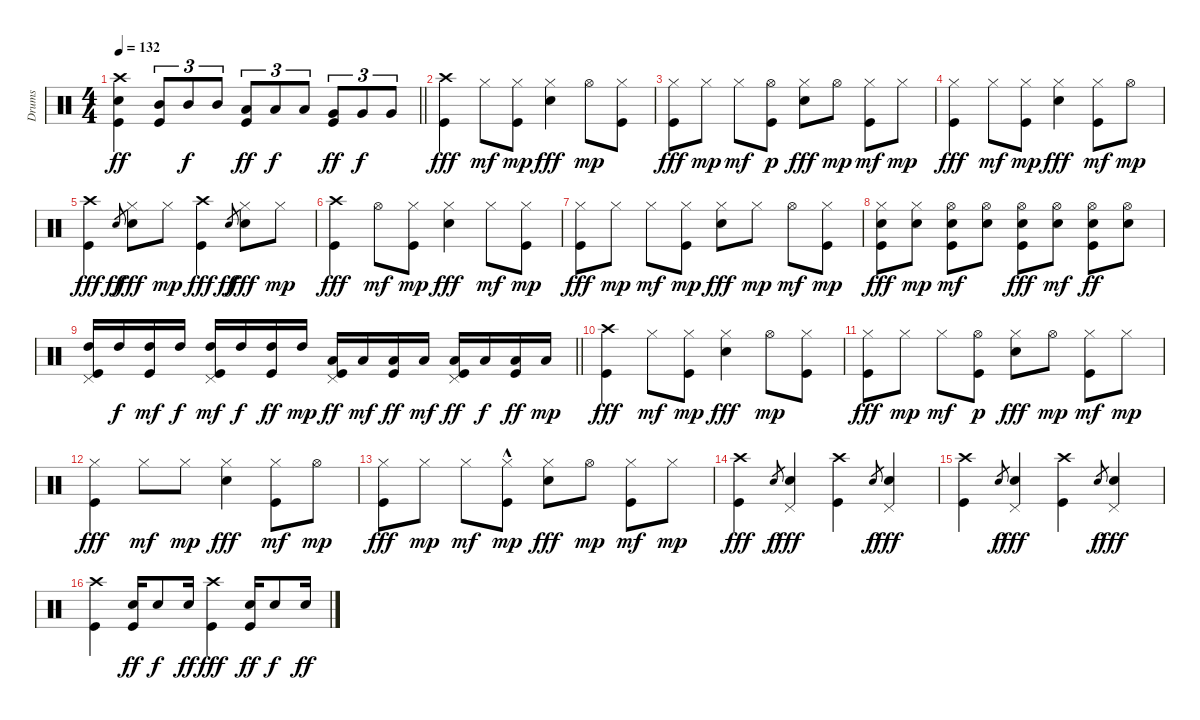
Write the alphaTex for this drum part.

\track ("Drums" "Drums") {instrument percussion}
\staff {score}
\articulation defaults
\ts (4 4)
\tempo 132
\clef neutral
\barLineRight lightlight
\ks c
("Crash high (hit)" "Snare (hit) 2" "Kick (hit)").4{dy ff} ("Mid Tom (hit)" "Kick (hit)").8{tu (3 2)} "Mid Tom (hit)".8{tu (3 2) dy f} "Mid Tom (hit)".8{tu (3 2)} ("Low Tom (hit)" "Kick (hit)").8{tu (3 2) dy ff} "Low Tom (hit)".8{tu (3 2) dy f} "Low Tom (hit)".8{tu (3 2)} ("Very Low Tom (hit)" "Kick (hit)").8{tu (3 2) dy ff} "Very Low Tom (hit)".8{tu (3 2) dy f} "Very Low Tom (hit)".8{tu (3 2)} |
("Crash high (hit)" "Kick (hit)").4{dy fff} "Hi-Hat (closed)".8{dy mf} ("Hi-Hat (closed)" "Kick (hit)").8{dy mp} ("Hi-Hat (closed)" "Snare (hit) 2").4{dy fff} "Hi-Hat (open)".8{dy mp} ("Hi-Hat (closed)" "Kick (hit)").8 |
("Hi-Hat (closed)" "Kick (hit)").8{dy fff} "Hi-Hat (closed)".8{dy mp} "Hi-Hat (closed)".8{dy mf} ("Hi-Hat (open)" "Kick (hit)").8{dy p} ("Hi-Hat (closed)" "Snare (hit) 2").8{dy fff} "Hi-Hat (open)".8{dy mp} ("Hi-Hat (closed)" "Kick (hit)").8{dy mf} "Hi-Hat (closed)".8{dy mp} |
("Hi-Hat (closed)" "Kick (hit)").4{dy fff} "Hi-Hat (closed)".8{dy mf} ("Hi-Hat (closed)" "Kick (hit)").8{dy mp} ("Hi-Hat (closed)" "Snare (hit) 2").4{dy fff} ("Hi-Hat (closed)" "Kick (hit)").8{dy mf} "Hi-Hat (open)".8{dy mp} |
("Crash high (hit)" "Kick (hit)").4{dy fff} "Snare (hit) 2".8{gr dy ff} ("Hi-Hat (closed)" "Snare (hit) 2").8{dy fff} "Hi-Hat (closed)".8{dy mp} ("Crash high (hit)" "Kick (hit)").4{dy fff} "Snare (hit) 2".8{gr dy ff} ("Hi-Hat (closed)" "Snare (hit) 2").8{dy fff} "Hi-Hat (closed)".8{dy mp} |
("Crash high (hit)" "Kick (hit)").4{dy fff} "Hi-Hat (open)".8{dy mf} ("Hi-Hat (closed)" "Kick (hit)").8{dy mp} ("Hi-Hat (closed)" "Snare (hit) 2").4{dy fff} "Hi-Hat (closed)".8{dy mf} ("Hi-Hat (closed)" "Kick (hit)").8{dy mp} |
("Hi-Hat (closed)" "Kick (hit)").8{dy fff} "Hi-Hat (closed)".8{dy mp} "Hi-Hat (closed)".8{dy mf} ("Hi-Hat (closed)" "Kick (hit)").8{dy mp} ("Hi-Hat (closed)" "Snare (hit) 2").8{dy fff} "Hi-Hat (closed)".8{dy mp} "Hi-Hat (open)".8{dy mf} ("Hi-Hat (closed)" "Kick (hit)").8{dy mp} |
("Hi-Hat (closed)" "Snare (hit) 2" "Kick (hit)").8{dy fff} ("Hi-Hat (closed)" "Snare (hit) 2").8{dy mp} ("Hi-Hat (open)" "Snare (hit) 2" "Kick (hit)").8{dy mf} ("Hi-Hat (open)" "Snare (hit) 2").8 ("Hi-Hat (open)" "Snare (hit) 2" "Kick (hit)").8{dy fff} ("Hi-Hat (open)" "Snare (hit) 2").8{dy mf} ("Kick (hit)" "Snare (hit) 2" "Hi-Hat (open)").8{dy ff} ("Hi-Hat (open)" "Snare (hit) 2").8 |
\barLineRight lightlight
("Pedal Hi-Hat (hit)" "High Tom (hit)" "Kick (hit)").16 "High Tom (hit)".16{dy f} ("High Tom (hit)" "Kick (hit)").16{dy mf} "High Tom (hit)".16{dy f} ("Pedal Hi-Hat (hit)" "High Tom (hit)" "Kick (hit)").16{dy mf} "High Tom (hit)".16{dy f} ("High Tom (hit)" "Kick (hit)").16{dy ff} "High Tom (hit)".16{dy mp} ("Pedal Hi-Hat (hit)" "Low Tom (hit)" "Kick (hit)").16{dy ff} "Low Tom (hit)".16{dy mf} ("Low Tom (hit)" "Kick (hit)").16{dy ff} "Low Tom (hit)".16{dy mf} ("Pedal Hi-Hat (hit)" "Low Tom (hit)" "Kick (hit)").16{dy ff} "Low Tom (hit)".16{dy f} ("Low Tom (hit)" "Kick (hit)").16{dy ff} "Low Tom (hit)".16{dy mp} |
("Crash high (hit)" "Kick (hit)").4{dy fff} "Hi-Hat (closed)".8{dy mf} ("Hi-Hat (closed)" "Kick (hit)").8{dy mp} ("Hi-Hat (closed)" "Snare (hit) 2").4{dy fff} "Hi-Hat (open)".8{dy mp} ("Hi-Hat (closed)" "Kick (hit)").8 |
("Hi-Hat (closed)" "Kick (hit)").8{dy fff} "Hi-Hat (closed)".8{dy mp} "Hi-Hat (closed)".8{dy mf} ("Hi-Hat (open)" "Kick (hit)").8{dy p} ("Hi-Hat (closed)" "Snare (hit) 2").8{dy fff} "Hi-Hat (open)".8{dy mp} ("Hi-Hat (closed)" "Kick (hit)").8{dy mf} "Hi-Hat (closed)".8{dy mp} |
("Hi-Hat (closed)" "Kick (hit)").4{dy fff} "Hi-Hat (closed)".8{dy mf} "Hi-Hat (closed)".8{dy mp} ("Hi-Hat (closed)" "Snare (hit) 2").4{dy fff} ("Hi-Hat (closed)" "Kick (hit)").8{dy mf} "Hi-Hat (open)".8{dy mp} |
("Hi-Hat (closed)" "Kick (hit)").8{dy fff} "Hi-Hat (closed)".8{dy mp} "Hi-Hat (closed)".8{dy mf} ("Hi-Hat (closed)" "Kick (hit)"{hac}).8{dy mp} ("Hi-Hat (closed)" "Snare (hit) 2").8{dy fff} "Hi-Hat (open)".8{dy mp} ("Hi-Hat (closed)" "Kick (hit)").8{dy mf} "Hi-Hat (closed)".8{dy mp} |
("Crash high (hit)" "Kick (hit)").4{dy fff} "Snare (hit) 2".8{gr dy f} ("Pedal Hi-Hat (hit)" "Snare (hit) 2").4{dy fff} ("Crash high (hit)" "Kick (hit)").4 "Snare (hit) 2".8{gr dy f} ("Pedal Hi-Hat (hit)" "Snare (hit) 2").4{dy fff} |
("Crash high (hit)" "Kick (hit)").4 "Snare (hit) 2".8{gr dy f} ("Pedal Hi-Hat (hit)" "Snare (hit) 2").4{dy fff} ("Crash high (hit)" "Kick (hit)").4 "Snare (hit) 2".8{gr dy f} ("Pedal Hi-Hat (hit)" "Snare (hit) 2").4{dy fff} |
("Crash high (hit)" "Kick (hit)").4 ("Snare (hit) 2" "Kick (hit)").16{dy ff} "Snare (hit) 2".8{dy f} "Snare (hit) 2".16{dy ff} ("Crash high (hit)" "Kick (hit)").4{dy fff} ("Snare (hit) 2" "Kick (hit)").16{dy ff} "Snare (hit) 2".8{dy f} "Snare (hit) 2".16{dy ff}
